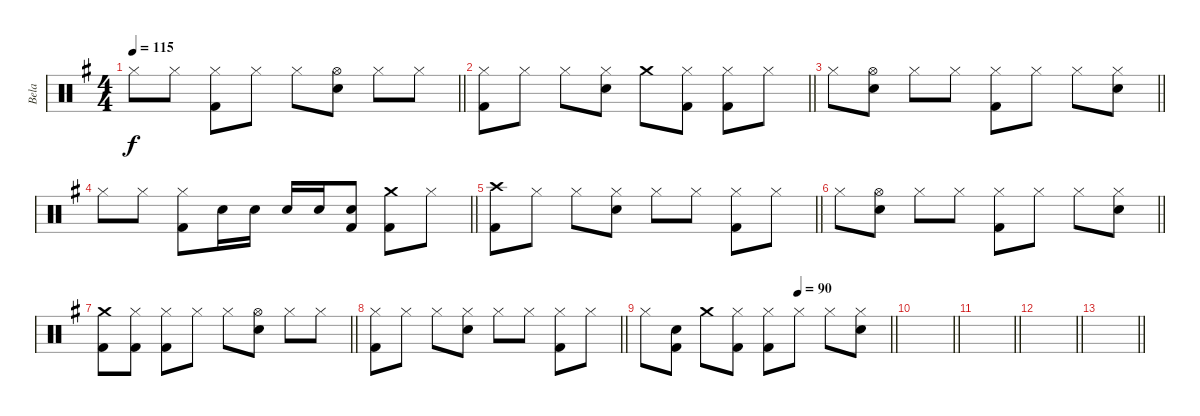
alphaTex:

\track ("Bela" "Bela") {instrument percussion}
\staff {score}
\articulation defaults
\ts (4 4)
\tempo 115
\clef neutral
\barLineRight lightlight
\ks eminor "Hi-Hat (closed)".8{dy f} "Hi-Hat (closed)".8
("Hi-Hat (closed)" "Kick (hit) 2").8 "Hi-Hat (closed)".8 "Hi-Hat (closed)".8 ("Hi-Hat (open)" "Electric Snare (hit)").8 "Hi-Hat (closed)".8 "Hi-Hat (closed)".8 |
\barLineRight lightlight
("Hi-Hat (closed)" "Kick (hit) 2").8 "Hi-Hat (closed)".8 "Hi-Hat (closed)".8 ("Hi-Hat (closed)" "Electric Snare (hit)").8 "Crash medium (hit)".8 ("Hi-Hat (closed)" "Kick (hit) 2").8 ("Hi-Hat (closed)" "Kick (hit) 2").8 "Hi-Hat (closed)".8 |
\barLineRight lightlight "Hi-Hat (closed)".8
("Hi-Hat (open)" "Electric Snare (hit)").8 "Hi-Hat (closed)".8 "Hi-Hat (closed)".8 ("Hi-Hat (closed)" "Kick (hit) 2").8 "Hi-Hat (closed)".8 "Hi-Hat (closed)".8 ("Electric Snare (hit)" "Hi-Hat (closed)").8 |
\barLineRight lightlight "Hi-Hat (closed)".8 "Hi-Hat (closed)".8
("Hi-Hat (closed)" "Kick (hit) 2").8 "Electric Snare (hit)".16 "Electric Snare (hit)".16 "Electric Snare (hit)".16 "Electric Snare (hit)".16 ("Electric Snare (hit)" "Kick (hit) 2").8 ("Crash medium (hit)" "Kick (hit) 2").8 "Hi-Hat (closed)".8 |
\barLineRight lightlight
("Crash high (hit)" "Kick (hit) 2").8 "Hi-Hat (closed)".8 "Hi-Hat (closed)".8 ("Hi-Hat (closed)" "Electric Snare (hit)").8 "Hi-Hat (closed)".8 "Hi-Hat (closed)".8 ("Hi-Hat (closed)" "Kick (hit) 2").8 "Hi-Hat (closed)".8 |
\barLineRight lightlight "Hi-Hat (closed)".8
("Hi-Hat (open)" "Electric Snare (hit)").8 "Hi-Hat (closed)".8 "Hi-Hat (closed)".8 ("Hi-Hat (closed)" "Kick (hit) 2").8 "Hi-Hat (closed)".8 "Hi-Hat (closed)".8 ("Hi-Hat (closed)" "Electric Snare (hit)").8 |
\barLineRight lightlight
("Crash medium (hit)" "Kick (hit) 2").8 ("Hi-Hat (closed)" "Kick (hit) 2").8 ("Hi-Hat (closed)" "Kick (hit) 2").8 "Hi-Hat (closed)".8 "Hi-Hat (closed)".8 ("Hi-Hat (open)" "Electric Snare (hit)").8 "Hi-Hat (closed)".8 "Hi-Hat (closed)".8 |
\barLineRight lightlight
("Hi-Hat (closed)" "Kick (hit) 2").8 "Hi-Hat (closed)".8 "Hi-Hat (closed)".8 ("Hi-Hat (closed)" "Electric Snare (hit)").8 "Hi-Hat (closed)".8 "Hi-Hat (closed)".8 ("Hi-Hat (closed)" "Kick (hit) 2").8 "Hi-Hat (closed)".8 |
\tempo (90 0.625)
\barLineRight lightlight "Hi-Hat (closed)".8
("Electric Snare (hit)" "Kick (hit) 2").8 "Crash medium (hit)".8 ("Hi-Hat (closed)" "Kick (hit) 2").8 ("Hi-Hat (closed)" "Kick (hit) 2").8 "Hi-Hat (closed)".8 "Hi-Hat (closed)".8 ("Electric Snare (hit)" "Hi-Hat (closed)").8 |
\barLineRight lightlight
|
\barLineRight lightlight
|
\barLineRight lightlight
|
\barLineRight lightlight
